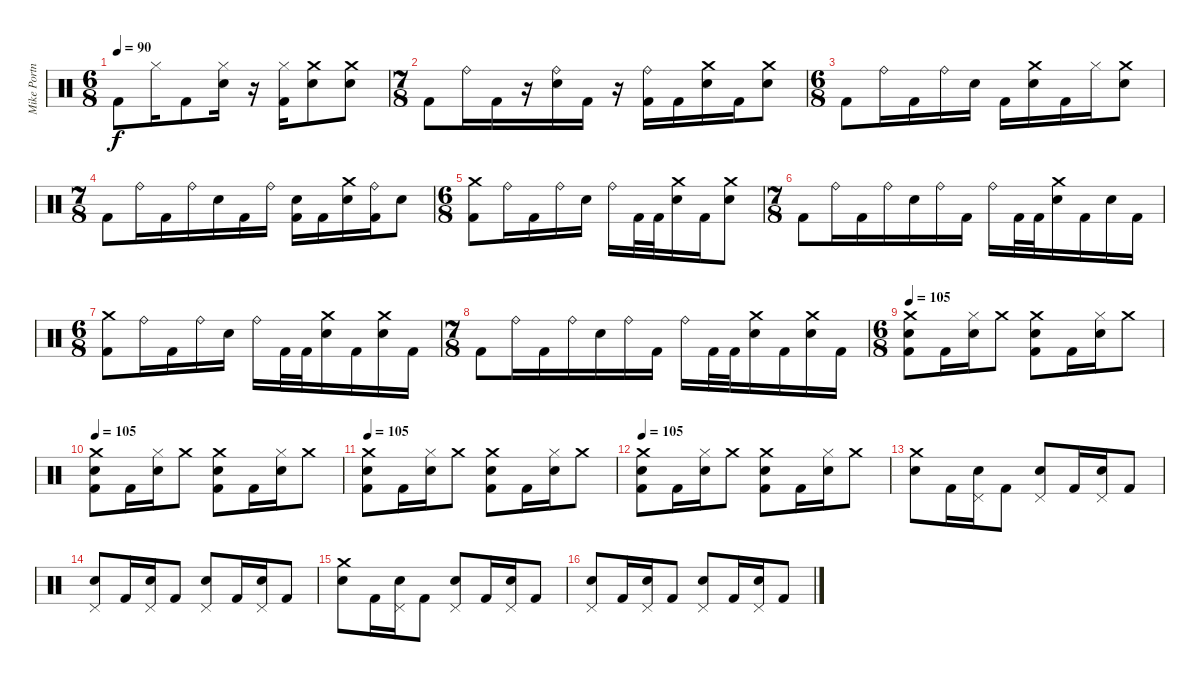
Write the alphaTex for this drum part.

\track ("Mike Portnoy" "Mike Portn") {instrument percussion}
\staff {score}
\articulation defaults
\ts (6 8)
\tempo 90
\clef neutral
\ks c "Kick (hit) 2".8{dy f} "Hi-Hat (closed)".16 "Kick (hit) 2".8
("Hi-Hat (closed)" "Electric Snare (hit)").16 r.16 ("Hi-Hat (closed)" "Kick (hit) 2").16 ("Crash medium (hit)" "Electric Snare (hit)").8 ("Crash medium (hit)" "Electric Snare (hit)").8 |
\ts (7 8)
"Kick (hit) 2".8 "Ride (bell)".16 "Kick (hit) 2".16 r.16 ("Ride (bell)" "Electric Snare (hit)").16 "Kick (hit) 2".16 r.16 ("Ride (bell)" "Kick (hit) 2").16 "Kick (hit) 2".16 ("Crash medium (hit)" "Electric Snare (hit)").16 "Kick (hit) 2".16 ("Crash medium (hit)" "Electric Snare (hit)").8 |
\ts (6 8)
"Kick (hit) 2".8 "Ride (bell)".16 "Kick (hit) 2".16 "Ride (bell)".16 "Electric Snare (hit)".16 "Kick (hit) 2".16 ("Crash medium (hit)" "Electric Snare (hit)").16 "Kick (hit) 2".16 "Hi-Hat (closed)".16 ("Crash medium (hit)" "Electric Snare (hit)").8 |
\ts (7 8)
"Kick (hit) 2".8 "Ride (bell)".16 "Kick (hit) 2".16 "Ride (bell)".16 "Electric Snare (hit)".16 "Kick (hit) 2".16 "Ride (bell)".16 ("Electric Snare (hit)" "Kick (hit) 2").16 "Kick (hit) 2".16 ("Crash medium (hit)" "Electric Snare (hit)").16 ("Ride (bell)" "Kick (hit) 2").16 "Electric Snare (hit)".8 |
\ts (6 8)
("Crash medium (hit)" "Kick (hit) 2").8 "Ride (bell)".16 "Kick (hit) 2".16 "Ride (bell)".16 "Electric Snare (hit)".16 "Ride (bell)".16 "Kick (hit) 2".32 "Kick (hit) 2".32 ("Crash medium (hit)" "Electric Snare (hit)").16 "Kick (hit) 2".16 ("Crash medium (hit)" "Electric Snare (hit)").8 |
\ts (7 8)
"Kick (hit) 2".8 "Ride (bell)".16 "Kick (hit) 2".16 "Ride (bell)".16 "Electric Snare (hit)".16 "Ride (bell)".16 "Kick (hit) 2".16 "Ride (bell)".16 "Kick (hit) 2".32 "Kick (hit) 2".32 ("Crash medium (hit)" "Electric Snare (hit)").16 "Kick (hit) 2".16 "Electric Snare (hit)".16 "Kick (hit) 2".16 |
\ts (6 8)
("Crash medium (hit)" "Kick (hit) 2").8 "Ride (bell)".16 "Kick (hit) 2".16 "Ride (bell)".16 "Electric Snare (hit)".16 "Ride (bell)".16 "Kick (hit) 2".32 "Kick (hit) 2".32 ("Crash medium (hit)" "Electric Snare (hit)").16 "Kick (hit) 2".16 ("Crash medium (hit)" "Electric Snare (hit)").16 "Kick (hit) 2".16 |
\ts (7 8)
"Kick (hit) 2".8 "Ride (bell)".16 "Kick (hit) 2".16 "Ride (bell)".16 "Electric Snare (hit)".16 "Ride (bell)".16 "Kick (hit) 2".16 "Ride (bell)".16 "Kick (hit) 2".32 "Kick (hit) 2".32 ("Crash medium (hit)" "Electric Snare (hit)").16 "Kick (hit) 2".16 ("Crash medium (hit)" "Electric Snare (hit)").16 "Kick (hit) 2".16 |
\ts (6 8)
\tempo 105
("Crash medium (hit)" "Electric Snare (hit)" "Kick (hit) 2").8 "Kick (hit) 2".16 ("Hi-Hat (closed)" "Electric Snare (hit)").16 "Crash medium (hit)".8 ("Crash medium (hit)" "Electric Snare (hit)" "Kick (hit) 2").8 "Kick (hit) 2".16 ("Hi-Hat (closed)" "Electric Snare (hit)").16 "Crash medium (hit)".8 |
\tempo 105
("Crash medium (hit)" "Electric Snare (hit)" "Kick (hit) 2").8 "Kick (hit) 2".16 ("Hi-Hat (closed)" "Electric Snare (hit)").16 "Crash medium (hit)".8 ("Crash medium (hit)" "Electric Snare (hit)" "Kick (hit) 2").8 "Kick (hit) 2".16 ("Hi-Hat (closed)" "Electric Snare (hit)").16 "Crash medium (hit)".8 |
\tempo 105
("Crash medium (hit)" "Electric Snare (hit)" "Kick (hit) 2").8 "Kick (hit) 2".16 ("Hi-Hat (closed)" "Electric Snare (hit)").16 "Crash medium (hit)".8 ("Crash medium (hit)" "Electric Snare (hit)" "Kick (hit) 2").8 "Kick (hit) 2".16 ("Hi-Hat (closed)" "Electric Snare (hit)").16 "Crash medium (hit)".8 |
\tempo 105
("Crash medium (hit)" "Electric Snare (hit)" "Kick (hit) 2").8 "Kick (hit) 2".16 ("Hi-Hat (closed)" "Electric Snare (hit)").16 "Crash medium (hit)".8 ("Crash medium (hit)" "Electric Snare (hit)" "Kick (hit) 2").8 "Kick (hit) 2".16 ("Hi-Hat (closed)" "Electric Snare (hit)").16 "Crash medium (hit)".8 |
("Crash medium (hit)" "Electric Snare (hit)").8 "Kick (hit) 2".16 ("Pedal Hi-Hat (hit)" "Electric Snare (hit)").16 "Kick (hit) 2".8 ("Pedal Hi-Hat (hit)" "Electric Snare (hit)").8 "Kick (hit) 2".16 ("Pedal Hi-Hat (hit)" "Electric Snare (hit)").16 "Kick (hit) 2".8 |
("Pedal Hi-Hat (hit)" "Electric Snare (hit)").8 "Kick (hit) 2".16 ("Pedal Hi-Hat (hit)" "Electric Snare (hit)").16 "Kick (hit) 2".8 ("Pedal Hi-Hat (hit)" "Electric Snare (hit)").8 "Kick (hit) 2".16 ("Pedal Hi-Hat (hit)" "Electric Snare (hit)").16 "Kick (hit) 2".8 |
("Crash medium (hit)" "Electric Snare (hit)").8 "Kick (hit) 2".16 ("Pedal Hi-Hat (hit)" "Electric Snare (hit)").16 "Kick (hit) 2".8 ("Pedal Hi-Hat (hit)" "Electric Snare (hit)").8 "Kick (hit) 2".16 ("Pedal Hi-Hat (hit)" "Electric Snare (hit)").16 "Kick (hit) 2".8 |
("Pedal Hi-Hat (hit)" "Electric Snare (hit)").8 "Kick (hit) 2".16 ("Pedal Hi-Hat (hit)" "Electric Snare (hit)").16 "Kick (hit) 2".8 ("Pedal Hi-Hat (hit)" "Electric Snare (hit)").8 "Kick (hit) 2".16 ("Pedal Hi-Hat (hit)" "Electric Snare (hit)").16 "Kick (hit) 2".8
